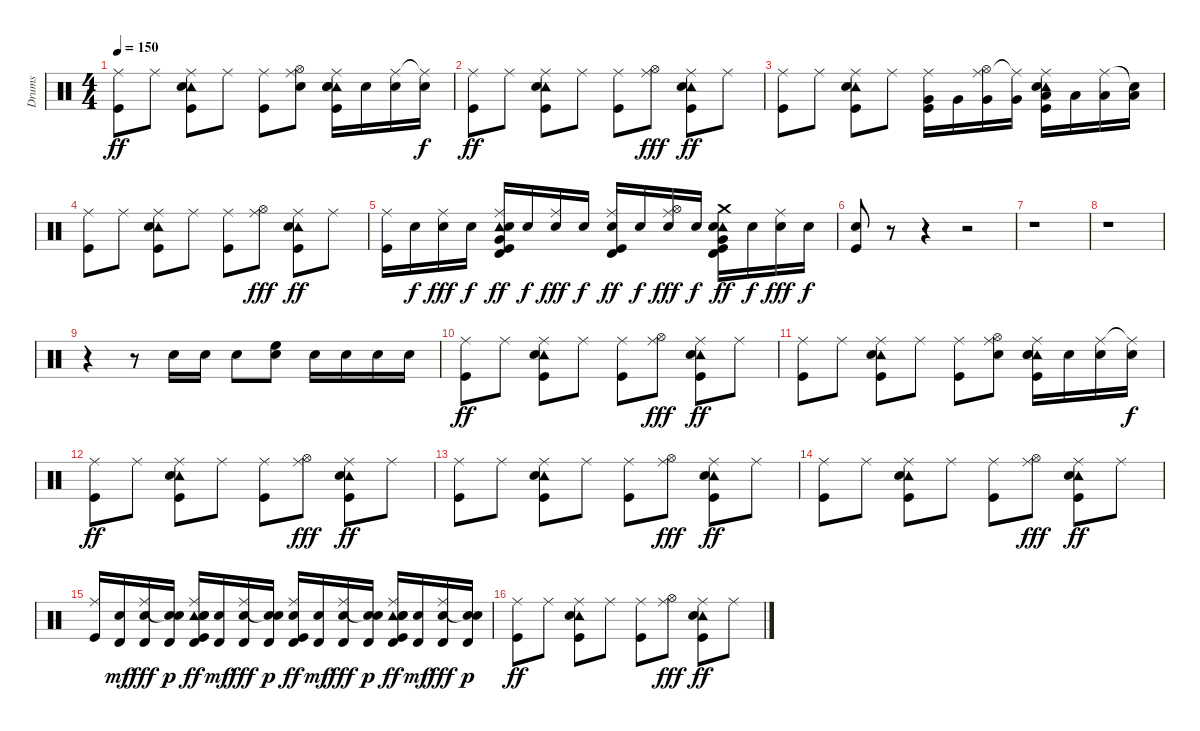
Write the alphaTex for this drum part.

\track ("Drums" "Drums") {instrument percussion}
\staff {score}
\articulation defaults
\ts (4 4)
\tempo 150
\clef neutral
\ks c
("Ride (middle)" "Kick (hit)").8{dy ff} "Ride (middle)".8 ("Ride (middle)" "Tambourine (hit)" "Electric Snare (hit)" "Kick (hit)").8 "Ride (middle)".8 ("Ride (middle)" "Kick (hit)").8 ("Ride (middle)" "Hi-Hat (open)" "Snare (hit) 2").8 ("Ride (middle)" "Tambourine (hit)" "Electric Snare (hit)" "Snare (hit) 2" "Kick (hit)").16 "Snare (hit) 2".16 ("Ride (middle)" "Snare (hit) 2").16 ("Ride (middle)"{t} "Snare (hit) 2").16{dy f} |
("Ride (middle)" "Kick (hit)").8{dy ff} "Ride (middle)".8 ("Ride (middle)" "Tambourine (hit)" "Electric Snare (hit)" "Kick (hit)").8 "Ride (middle)".8 ("Ride (middle)" "Kick (hit)").8 ("Ride (middle)" "Hi-Hat (open)").8{dy fff} ("Ride (middle)" "Tambourine (hit)" "Electric Snare (hit)" "Kick (hit)").8{dy ff} "Ride (middle)".8 |
("Ride (middle)" "Kick (hit)").8 "Ride (middle)".8 ("Ride (middle)" "Tambourine (hit)" "Electric Snare (hit)" "Kick (hit)").8 "Ride (middle)".8 ("Ride (middle)" "Very Low Tom (hit)" "Kick (hit)").16 "Very Low Tom (hit)".16 ("Ride (middle)" "Hi-Hat (open)" "Very Low Tom (hit)").16 ("Ride (middle)"{t} "Very Low Tom (hit)").16 ("Ride (middle)" "Tambourine (hit)" "Electric Snare (hit)" "Low Floor Tom (hit)" "Kick (hit)").16 "Low Floor Tom (hit)".16 ("Ride (middle)" "Low Floor Tom (hit)").16 ("Snare (hit)"{t} "Low Floor Tom (hit)").16 |
("Ride (middle)" "Kick (hit)").8 "Ride (middle)".8 ("Ride (middle)" "Tambourine (hit)" "Electric Snare (hit)" "Kick (hit)").8 "Ride (middle)".8 ("Ride (middle)" "Kick (hit)").8 ("Ride (middle)" "Hi-Hat (open)").8{dy fff} ("Ride (middle)" "Tambourine (hit)" "Electric Snare (hit)" "Kick (hit)").8{dy ff} "Ride (middle)".8 |
("Ride (middle)" "Kick (hit)").16 "Snare (hit) 2".16{dy f} ("Ride (middle)" "Snare (hit) 2").16{dy fff} "Snare (hit) 2".16{dy f} ("Timbale high (hit)" "Ride (middle)" "Tambourine (hit)" "Very Low Tom (hit)" "Snare (hit) 2" "Kick (hit)").16{dy ff} "Snare (hit) 2".16{dy f} ("Ride (middle)" "Snare (hit) 2").16{dy fff} "Snare (hit) 2".16{dy f} ("Timbale high (hit)" "Ride (middle)" "Snare (hit) 2" "Kick (hit)").16{dy ff} "Snare (hit) 2".16{dy f} ("Ride (middle)" "Hi-Hat (open)" "Snare (hit) 2").16{dy fff} "Snare (hit) 2".16{dy f} ("Timbale high (hit)" "Crash medium (hit)" "Tambourine (hit)" "Very Low Tom (hit)" "Snare (hit) 2" "Kick (hit)").16{dy ff} "Snare (hit) 2".16{dy f} ("Ride (middle)" "Snare (hit) 2").16{dy fff} "Snare (hit) 2".16{dy f} |
("Electric Snare (hit)" "Kick (hit)").8 r.8 r.4 r.2 |
r.1 |
r.1 |
r.4 r.8 "Snare (hit) 2".16 "Snare (hit) 2".16 "Snare (hit) 2".8 ("High Floor Tom (hit)" "Snare (hit) 2").8 "Snare (hit) 2".16 "Snare (hit) 2".16 "Snare (hit) 2".16 "Snare (hit) 2".16 |
("Ride (middle)" "Kick (hit)").8{dy ff} "Ride (middle)".8 ("Ride (middle)" "Tambourine (hit)" "Electric Snare (hit)" "Kick (hit)").8 "Ride (middle)".8 ("Ride (middle)" "Kick (hit)").8 ("Ride (middle)" "Hi-Hat (open)").8{dy fff} ("Ride (middle)" "Tambourine (hit)" "Electric Snare (hit)" "Kick (hit)").8{dy ff} "Ride (middle)".8 |
("Ride (middle)" "Kick (hit)").8 "Ride (middle)".8 ("Ride (middle)" "Tambourine (hit)" "Electric Snare (hit)" "Kick (hit)").8 "Ride (middle)".8 ("Ride (middle)" "Kick (hit)").8 ("Ride (middle)" "Hi-Hat (open)" "Snare (hit) 2").8 ("Ride (middle)" "Tambourine (hit)" "Electric Snare (hit)" "Snare (hit) 2" "Kick (hit)").16 "Snare (hit) 2".16 ("Ride (middle)" "Snare (hit) 2").16 ("Ride (middle)"{t} "Snare (hit) 2").16{dy f} |
("Ride (middle)" "Kick (hit)").8{dy ff} "Ride (middle)".8 ("Ride (middle)" "Tambourine (hit)" "Electric Snare (hit)" "Kick (hit)").8 "Ride (middle)".8 ("Ride (middle)" "Kick (hit)").8 ("Ride (middle)" "Hi-Hat (open)").8{dy fff} ("Ride (middle)" "Tambourine (hit)" "Electric Snare (hit)" "Kick (hit)").8{dy ff} "Ride (middle)".8 |
("Ride (middle)" "Kick (hit)").8 "Ride (middle)".8 ("Ride (middle)" "Tambourine (hit)" "Electric Snare (hit)" "Kick (hit)").8 "Ride (middle)".8 ("Ride (middle)" "Kick (hit)").8 ("Ride (middle)" "Hi-Hat (open)").8{dy fff} ("Ride (middle)" "Tambourine (hit)" "Electric Snare (hit)" "Kick (hit)").8{dy ff} "Ride (middle)".8 |
("Ride (middle)" "Kick (hit)").8 "Ride (middle)".8 ("Ride (middle)" "Tambourine (hit)" "Electric Snare (hit)" "Kick (hit)").8 "Ride (middle)".8 ("Ride (middle)" "Kick (hit)").8 ("Ride (middle)" "Hi-Hat (open)").8{dy fff} ("Ride (middle)" "Tambourine (hit)" "Electric Snare (hit)" "Kick (hit)").8{dy ff} "Ride (middle)".8 |
("Ride (middle)" "Kick (hit)").16 ("Timbale high (hit)" "Snare (hit) 2").16{dy mf} ("Timbale high (hit)" "Ride (middle)" "Snare (hit) 2").16{dy fff} ("Timbale high (hit)" "Snare (hit)"{t} "Snare (hit) 2").16{dy p} ("Timbale high (hit)" "Ride (middle)" "Tambourine (hit)" "Electric Snare (hit)" "Snare (hit) 2" "Kick (hit)").16{dy ff} ("Timbale high (hit)" "Snare (hit) 2").16{dy mf} ("Timbale high (hit)" "Ride (middle)" "Snare (hit) 2").16{dy fff} ("Timbale high (hit)" "Snare (hit)"{t} "Snare (hit) 2").16{dy p} ("Timbale high (hit)" "Ride (middle)" "Snare (hit) 2" "Kick (hit)").16{dy ff} ("Timbale high (hit)" "Snare (hit) 2").16{dy mf} ("Timbale high (hit)" "Ride (middle)" "Snare (hit) 2").16{dy fff} ("Timbale high (hit)" "Snare (hit)"{t} "Snare (hit) 2").16{dy p} ("Timbale high (hit)" "Ride (middle)" "Tambourine (hit)" "Electric Snare (hit)" "Snare (hit) 2" "Kick (hit)").16{dy ff} ("Timbale high (hit)" "Snare (hit) 2").16{dy mf} ("Timbale high (hit)" "Ride (middle)" "Snare (hit) 2").16{dy fff} ("Timbale high (hit)" "Snare (hit)"{t} "Snare (hit) 2").16{dy p} |
("Ride (middle)" "Kick (hit)").8{dy ff} "Ride (middle)".8 ("Ride (middle)" "Tambourine (hit)" "Electric Snare (hit)" "Kick (hit)").8 "Ride (middle)".8 ("Ride (middle)" "Kick (hit)").8 ("Ride (middle)" "Hi-Hat (open)").8{dy fff} ("Ride (middle)" "Tambourine (hit)" "Electric Snare (hit)" "Kick (hit)").8{dy ff} "Ride (middle)".8
